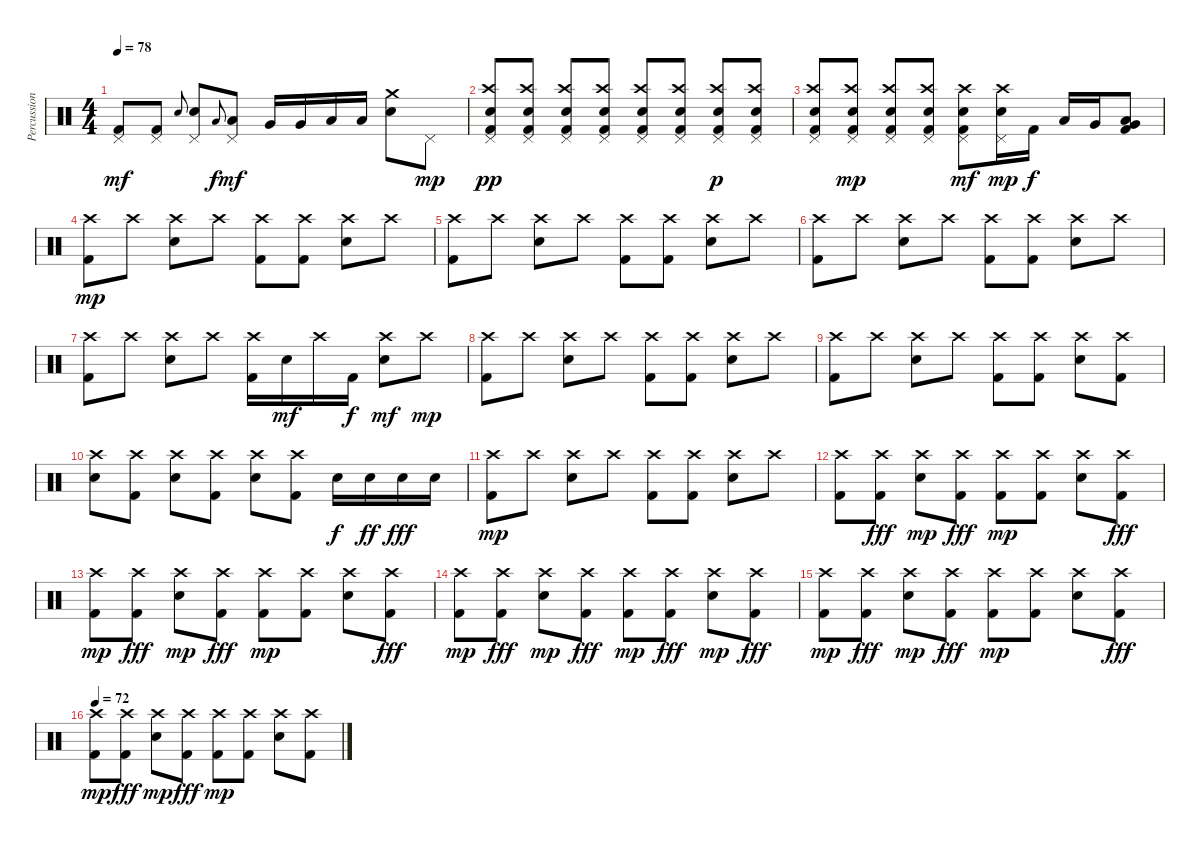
\track ("Percussion" "Percussion") {instrument percussion}
\staff {score}
\articulation defaults
\ts (4 4)
\tempo 78
\clef neutral
\ks c
("Pedal Hi-Hat (hit)" "Kick (hit) 2").8{dy mf} ("Pedal Hi-Hat (hit)" "Kick (hit) 2").8 "Electric Snare (hit)".8{gr onbeat} ("Pedal Hi-Hat (hit)" "Electric Snare (hit)").8 "Low Tom (hit)".8{gr onbeat dy f} ("Pedal Hi-Hat (hit)" "Low Tom (hit)").8{dy mf} "Very Low Tom (hit)".16 "Very Low Tom (hit)".16 "Low Floor Tom (hit)".16 "Low Floor Tom (hit)".16 ("Crash medium (hit)" "Electric Snare (hit)").8 "Pedal Hi-Hat (hit)".8{dy mp} |
("Crash high (hit)" "Pedal Hi-Hat (hit)" "Snare (hit) 2" "Kick (hit) 2").8{dy pp} ("Crash high (hit)" "Pedal Hi-Hat (hit)" "Snare (hit) 2" "Kick (hit) 2").8 ("Crash high (hit)" "Pedal Hi-Hat (hit)" "Snare (hit) 2" "Kick (hit) 2").8 ("Crash high (hit)" "Pedal Hi-Hat (hit)" "Snare (hit) 2" "Kick (hit) 2").8 ("Crash high (hit)" "Pedal Hi-Hat (hit)" "Snare (hit) 2" "Kick (hit) 2").8 ("Crash high (hit)" "Pedal Hi-Hat (hit)" "Snare (hit) 2" "Kick (hit) 2").8 ("Crash high (hit)" "Pedal Hi-Hat (hit)" "Snare (hit) 2" "Kick (hit) 2").8{dy p} ("Crash high (hit)" "Pedal Hi-Hat (hit)" "Snare (hit) 2" "Kick (hit) 2").8 |
("Crash high (hit)" "Pedal Hi-Hat (hit)" "Snare (hit) 2" "Kick (hit) 2").8 ("Crash high (hit)" "Pedal Hi-Hat (hit)" "Snare (hit) 2" "Kick (hit) 2").8{dy mp} ("Crash high (hit)" "Pedal Hi-Hat (hit)" "Snare (hit) 2" "Kick (hit) 2").8 ("Crash high (hit)" "Pedal Hi-Hat (hit)" "Snare (hit) 2" "Kick (hit) 2").8 ("Crash high (hit)" "Pedal Hi-Hat (hit)" "Snare (hit) 2" "Kick (hit) 2").8{dy mf} ("Crash high (hit)" "Pedal Hi-Hat (hit)" "Electric Snare (hit)").16{dy mp} "Kick (hit) 2".16{dy f} "Low Floor Tom (hit)".16 "Very Low Tom (hit)".16 ("Very Low Tom (hit)" "Low Floor Tom (hit)" "Kick (hit) 2").8 |
("Crash high (hit)" "Kick (hit) 2").8{dy mp} "Crash high (hit)".8 ("Crash high (hit)" "Electric Snare (hit)").8 "Crash high (hit)".8 ("Crash high (hit)" "Kick (hit) 2").8 ("Crash high (hit)" "Kick (hit) 2").8 ("Crash high (hit)" "Electric Snare (hit)").8 "Crash high (hit)".8 |
("Crash high (hit)" "Kick (hit) 2").8 "Crash high (hit)".8 ("Crash high (hit)" "Electric Snare (hit)").8 "Crash high (hit)".8 ("Crash high (hit)" "Kick (hit) 2").8 ("Crash high (hit)" "Kick (hit) 2").8 ("Crash high (hit)" "Electric Snare (hit)").8 "Crash high (hit)".8 |
("Crash high (hit)" "Kick (hit) 2").8 "Crash high (hit)".8 ("Crash high (hit)" "Electric Snare (hit)").8 "Crash high (hit)".8 ("Crash high (hit)" "Kick (hit) 2").8 ("Crash high (hit)" "Kick (hit) 2").8 ("Crash high (hit)" "Electric Snare (hit)").8 "Crash high (hit)".8 |
("Crash high (hit)" "Kick (hit) 2").8 "Crash high (hit)".8 ("Crash high (hit)" "Electric Snare (hit)").8 "Crash high (hit)".8 ("Crash high (hit)" "Kick (hit) 2").16 "Electric Snare (hit)".16{dy mf} "Crash high (hit)".16 "Kick (hit) 2".16{dy f} ("Crash high (hit)" "Electric Snare (hit)").8{dy mf} "Crash high (hit)".8{dy mp} |
("Crash high (hit)" "Kick (hit) 2").8 "Crash high (hit)".8 ("Crash high (hit)" "Electric Snare (hit)").8 "Crash high (hit)".8 ("Crash high (hit)" "Kick (hit) 2").8 ("Crash high (hit)" "Kick (hit) 2").8 ("Crash high (hit)" "Electric Snare (hit)").8 "Crash high (hit)".8 |
("Crash high (hit)" "Kick (hit) 2").8 "Crash high (hit)".8 ("Crash high (hit)" "Electric Snare (hit)").8 "Crash high (hit)".8 ("Crash high (hit)" "Kick (hit) 2").8 ("Crash high (hit)" "Kick (hit) 2").8 ("Crash high (hit)" "Electric Snare (hit)").8 ("Crash high (hit)" "Kick (hit) 2").8 |
("Crash high (hit)" "Electric Snare (hit)").8 ("Crash high (hit)" "Kick (hit) 2").8 ("Crash high (hit)" "Electric Snare (hit)").8 ("Crash high (hit)" "Kick (hit) 2").8 ("Crash high (hit)" "Electric Snare (hit)").8 ("Crash high (hit)" "Kick (hit) 2").8 "Electric Snare (hit)".16{dy f} "Electric Snare (hit)".16{dy ff} "Electric Snare (hit)".16{dy fff} "Electric Snare (hit)".16 |
("Crash high (hit)" "Kick (hit) 2").8{dy mp} "Crash high (hit)".8 ("Crash high (hit)" "Electric Snare (hit)").8 "Crash high (hit)".8 ("Crash high (hit)" "Kick (hit) 2").8 ("Crash high (hit)" "Kick (hit) 2").8 ("Crash high (hit)" "Electric Snare (hit)").8 "Crash high (hit)".8 |
("Crash high (hit)" "Kick (hit) 2").8 ("Crash high (hit)" "Kick (hit) 2").8{dy fff} ("Crash high (hit)" "Electric Snare (hit)").8{dy mp} ("Crash high (hit)" "Kick (hit) 2").8{dy fff} ("Crash high (hit)" "Kick (hit) 2").8{dy mp} ("Crash high (hit)" "Kick (hit) 2").8 ("Crash high (hit)" "Electric Snare (hit)").8 ("Crash high (hit)" "Kick (hit) 2").8{dy fff} |
("Crash high (hit)" "Kick (hit) 2").8{dy mp} ("Crash high (hit)" "Kick (hit) 2").8{dy fff} ("Crash high (hit)" "Electric Snare (hit)").8{dy mp} ("Crash high (hit)" "Kick (hit) 2").8{dy fff} ("Crash high (hit)" "Kick (hit) 2").8{dy mp} ("Crash high (hit)" "Kick (hit) 2").8 ("Crash high (hit)" "Electric Snare (hit)").8 ("Crash high (hit)" "Kick (hit) 2").8{dy fff} |
("Crash high (hit)" "Kick (hit) 2").8{dy mp} ("Crash high (hit)" "Kick (hit) 2").8{dy fff} ("Crash high (hit)" "Electric Snare (hit)").8{dy mp} ("Crash high (hit)" "Kick (hit) 2").8{dy fff} ("Crash high (hit)" "Kick (hit) 2").8{dy mp} ("Crash high (hit)" "Kick (hit) 2").8{dy fff} ("Crash high (hit)" "Electric Snare (hit)").8{dy mp} ("Crash high (hit)" "Kick (hit) 2").8{dy fff} |
("Crash high (hit)" "Kick (hit) 2").8{dy mp} ("Crash high (hit)" "Kick (hit) 2").8{dy fff} ("Crash high (hit)" "Electric Snare (hit)").8{dy mp} ("Crash high (hit)" "Kick (hit) 2").8{dy fff} ("Crash high (hit)" "Kick (hit) 2").8{dy mp} ("Crash high (hit)" "Kick (hit) 2").8 ("Crash high (hit)" "Electric Snare (hit)").8 ("Crash high (hit)" "Kick (hit) 2").8{dy fff} |
\tempo 72
("Crash high (hit)" "Kick (hit) 2").8{dy mp} ("Crash high (hit)" "Kick (hit) 2").8{dy fff} ("Crash high (hit)" "Electric Snare (hit)").8{dy mp} ("Crash high (hit)" "Kick (hit) 2").8{dy fff} ("Crash high (hit)" "Kick (hit) 2").8{dy mp} ("Crash high (hit)" "Kick (hit) 2").8 ("Crash high (hit)" "Electric Snare (hit)").8 ("Crash high (hit)" "Kick (hit) 2").8
